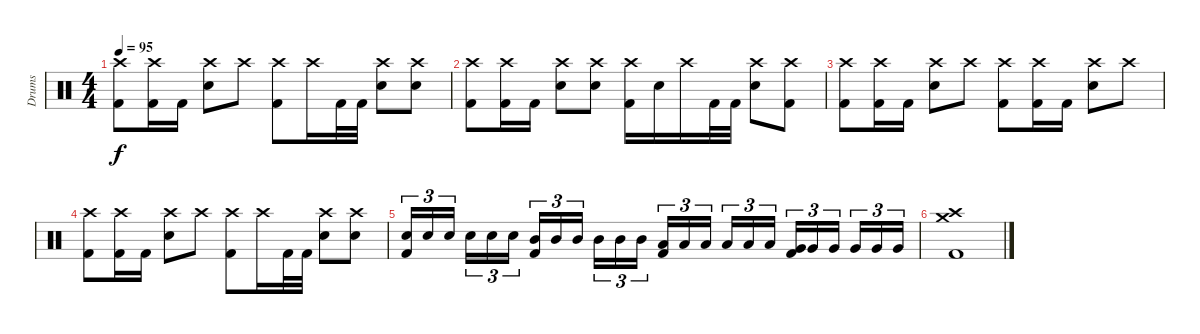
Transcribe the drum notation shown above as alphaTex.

\track ("Drums" "Drums") {instrument percussion}
\staff {score}
\articulation defaults
\ts (4 4)
\tempo 95
\clef neutral
\ks c
("Crash high (hit)" "Kick (hit) 2").8{dy f} ("Crash high (hit)" "Kick (hit) 2").16 "Kick (hit) 2".16 ("Crash high (hit)" "Snare (hit) 2").8 "Crash high (hit)".8 ("Crash high (hit)" "Kick (hit) 2").8 "Crash high (hit)".16 "Kick (hit) 2".32 "Kick (hit) 2".32 ("Crash high (hit)" "Snare (hit) 2").8 ("Crash high (hit)" "Snare (hit) 2").8 |
("Crash high (hit)" "Kick (hit) 2").8 ("Crash high (hit)" "Kick (hit) 2").16 "Kick (hit) 2".16 ("Crash high (hit)" "Snare (hit) 2").8 ("Crash high (hit)" "Snare (hit) 2").8 ("Crash high (hit)" "Kick (hit) 2").16 "Snare (hit) 2".16 "Crash high (hit)".16 "Kick (hit) 2".32 "Kick (hit) 2".32 ("Crash high (hit)" "Snare (hit) 2").8 ("Crash high (hit)" "Kick (hit) 2").8 |
("Crash high (hit)" "Kick (hit) 2").8 ("Crash high (hit)" "Kick (hit) 2").16 "Kick (hit) 2".16 ("Crash high (hit)" "Snare (hit) 2").8 "Crash high (hit)".8 ("Crash high (hit)" "Kick (hit) 2").8 ("Crash high (hit)" "Kick (hit) 2").16 "Kick (hit) 2".16 ("Crash high (hit)" "Snare (hit) 2").8 "Crash high (hit)".8 |
("Crash high (hit)" "Kick (hit) 2").8 ("Crash high (hit)" "Kick (hit) 2").16 "Kick (hit) 2".16 ("Crash high (hit)" "Snare (hit) 2").8 "Crash high (hit)".8 ("Crash high (hit)" "Kick (hit) 2").8 "Crash high (hit)".16 "Kick (hit) 2".32 "Kick (hit) 2".32 ("Crash high (hit)" "Snare (hit) 2").8 ("Crash high (hit)" "Snare (hit) 2").8 |
("Snare (hit) 2" "Kick (hit) 2").16{tu (3 2)} "Snare (hit) 2".16{tu (3 2)} "Snare (hit) 2".16{tu (3 2) beam splitsecondary} "Snare (hit) 2".16{tu (3 2)} "Snare (hit) 2".16{tu (3 2)} "Snare (hit) 2".16{tu (3 2)} ("Mid Tom (hit)" "Kick (hit) 2").16{tu (3 2)} "Mid Tom (hit)".16{tu (3 2)} "Mid Tom (hit)".16{tu (3 2) beam splitsecondary} "Mid Tom (hit)".16{tu (3 2)} "Mid Tom (hit)".16{tu (3 2)} "Mid Tom (hit)".16{tu (3 2)} ("Low Tom (hit)" "Kick (hit) 2").16{tu (3 2)} "Low Tom (hit)".16{tu (3 2)} "Low Tom (hit)".16{tu (3 2) beam splitsecondary} "Low Tom (hit)".16{tu (3 2)} "Low Tom (hit)".16{tu (3 2)} "Low Tom (hit)".16{tu (3 2)} ("Very Low Tom (hit)" "Kick (hit) 2").16{tu (3 2)} "Very Low Tom (hit)".16{tu (3 2)} "Very Low Tom (hit)".16{tu (3 2) beam splitsecondary} "Very Low Tom (hit)".16{tu (3 2)} "Very Low Tom (hit)".16{tu (3 2)} "Very Low Tom (hit)".16{tu (3 2)} |
("Crash high (hit)" "Crash medium (hit)" "Kick (hit) 2").1
